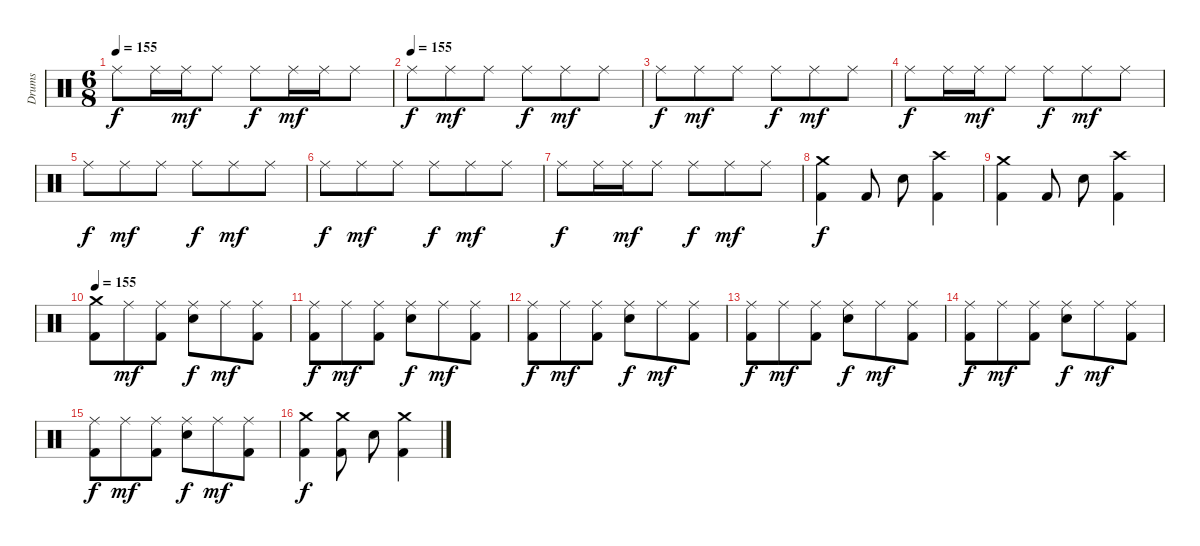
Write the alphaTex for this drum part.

\track ("Drums" "Drums") {instrument percussion}
\staff {score}
\articulation defaults
\ts (6 8)
\tempo 155
\clef neutral
\ks c "Ride (middle)".8{dy f} "Ride (middle)".16 "Ride (middle)".16{dy mf} "Ride (middle)".8 "Ride (middle)".8{dy f} "Ride (middle)".16{dy mf} "Ride (middle)".16 "Ride (middle)".8
|
\tempo (155)
"Ride (middle)".8{dy f} "Ride (middle)".8{dy mf} "Ride (middle)".8 "Ride (middle)".8{dy f} "Ride (middle)".8{dy mf} "Ride (middle)".8 |
"Ride (middle)".8{dy f} "Ride (middle)".8{dy mf} "Ride (middle)".8 "Ride (middle)".8{dy f} "Ride (middle)".8{dy mf} "Ride (middle)".8 |
"Ride (middle)".8{dy f} "Ride (middle)".16 "Ride (middle)".16{dy mf} "Ride (middle)".8 "Ride (middle)".8{dy f} "Ride (middle)".8{dy mf} "Ride (middle)".8 |
"Ride (middle)".8{dy f} "Ride (middle)".8{dy mf} "Ride (middle)".8 "Ride (middle)".8{dy f} "Ride (middle)".8{dy mf} "Ride (middle)".8 |
"Ride (middle)".8{dy f} "Ride (middle)".8{dy mf} "Ride (middle)".8 "Ride (middle)".8{dy f} "Ride (middle)".8{dy mf} "Ride (middle)".8 |
"Ride (middle)".8{dy f} "Ride (middle)".16 "Ride (middle)".16{dy mf} "Ride (middle)".8 "Ride (middle)".8{dy f} "Ride (middle)".8{dy mf} "Ride (middle)".8 |
("Crash medium (hit)" "Kick (hit) 2").4{dy f} "Kick (hit) 2".8 "Electric Snare (hit)".8 ("Crash high (hit)" "Kick (hit) 2").4 |
("Crash medium (hit)" "Kick (hit) 2").4 "Kick (hit) 2".8 "Electric Snare (hit)".8 ("Crash high (hit)" "Kick (hit) 2").4 |
\tempo 155
("Crash medium (hit)" "Kick (hit) 2").8 "Ride (middle)".8{dy mf} ("Ride (middle)" "Kick (hit) 2").8 ("Ride (middle)" "Electric Snare (hit)").8{dy f} "Ride (middle)".8{dy mf} ("Ride (middle)" "Kick (hit) 2").8 |
("Ride (middle)" "Kick (hit) 2").8{dy f} "Ride (middle)".8{dy mf} ("Ride (middle)" "Kick (hit) 2").8 ("Ride (middle)" "Electric Snare (hit)").8{dy f} "Ride (middle)".8{dy mf} ("Ride (middle)" "Kick (hit) 2").8 |
("Ride (middle)" "Kick (hit) 2").8{dy f} "Ride (middle)".8{dy mf} ("Ride (middle)" "Kick (hit) 2").8 ("Ride (middle)" "Electric Snare (hit)").8{dy f} "Ride (middle)".8{dy mf} ("Ride (middle)" "Kick (hit) 2").8 |
("Ride (middle)" "Kick (hit) 2").8{dy f} "Ride (middle)".8{dy mf} ("Ride (middle)" "Kick (hit) 2").8 ("Ride (middle)" "Electric Snare (hit)").8{dy f} "Ride (middle)".8{dy mf} ("Ride (middle)" "Kick (hit) 2").8 |
("Ride (middle)" "Kick (hit) 2").8{dy f} "Ride (middle)".8{dy mf} ("Ride (middle)" "Kick (hit) 2").8 ("Ride (middle)" "Electric Snare (hit)").8{dy f} "Ride (middle)".8{dy mf} ("Ride (middle)" "Kick (hit) 2").8 |
("Ride (middle)" "Kick (hit) 2").8{dy f} "Ride (middle)".8{dy mf} ("Ride (middle)" "Kick (hit) 2").8 ("Ride (middle)" "Electric Snare (hit)").8{dy f} "Ride (middle)".8{dy mf} ("Ride (middle)" "Kick (hit) 2").8 |
("Crash medium (hit)" "Kick (hit) 2").4{dy f} ("Crash medium (hit)" "Kick (hit) 2").8 "Electric Snare (hit)".8 ("Crash medium (hit)" "Kick (hit) 2").4
